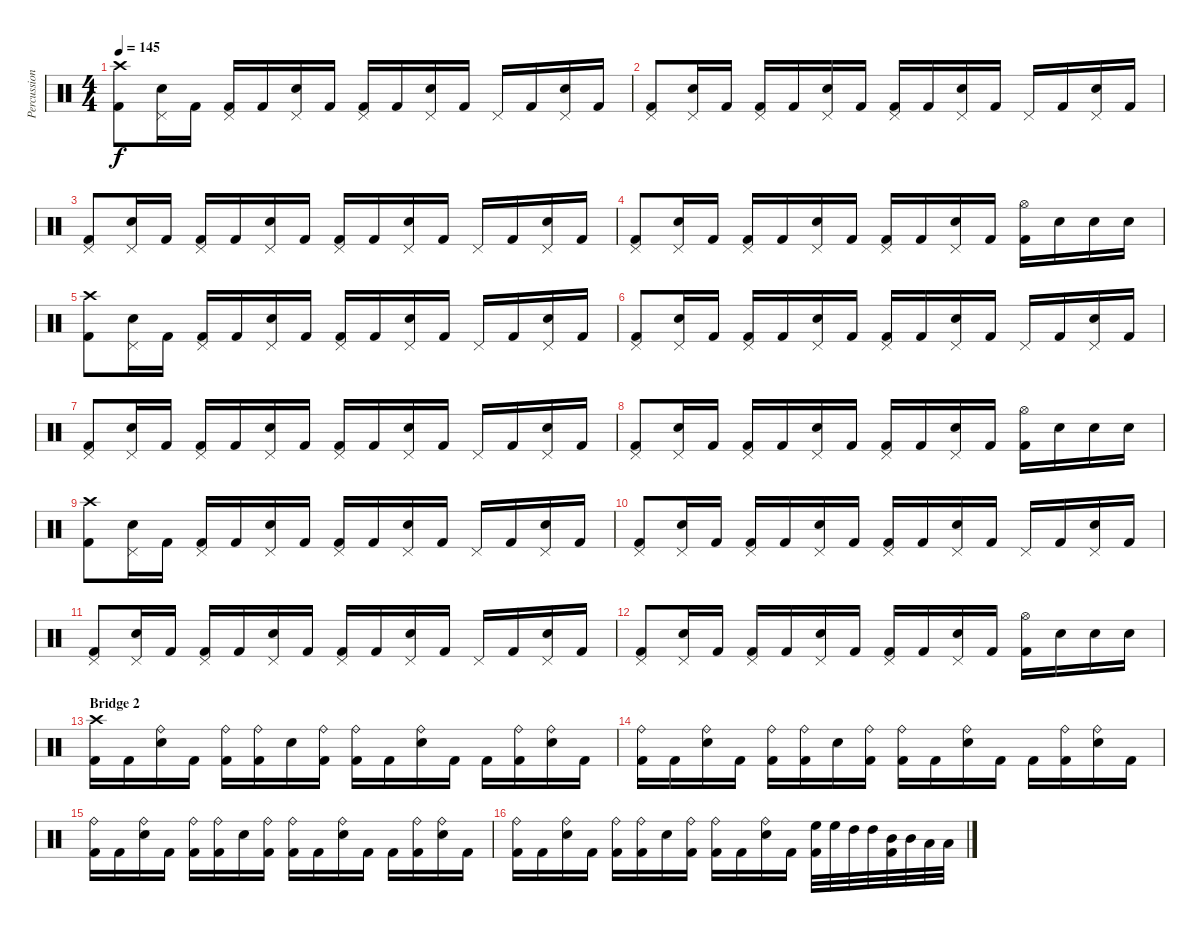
\track ("Percussion" "Percussion") {instrument percussion}
\staff {score}
\articulation defaults
\ts (4 4)
\tempo 145
\clef neutral
\ks c
("Kick (hit) 2" "Crash high (hit)").8{dy f} ("Electric Snare (hit)" "Pedal Hi-Hat (hit)").16 "Kick (hit) 2".16 ("Kick (hit) 2" "Pedal Hi-Hat (hit)").16 "Kick (hit) 2".16 ("Electric Snare (hit)" "Pedal Hi-Hat (hit)").16 "Kick (hit) 2".16 ("Kick (hit) 2" "Pedal Hi-Hat (hit)").16 "Kick (hit) 2".16 ("Electric Snare (hit)" "Pedal Hi-Hat (hit)").16 "Kick (hit) 2".16 "Pedal Hi-Hat (hit)".16 "Kick (hit) 2".16 ("Electric Snare (hit)" "Pedal Hi-Hat (hit)").16 "Kick (hit) 2".16 |
("Kick (hit) 2" "Pedal Hi-Hat (hit)").8 ("Electric Snare (hit)" "Pedal Hi-Hat (hit)").16 "Kick (hit) 2".16 ("Kick (hit) 2" "Pedal Hi-Hat (hit)").16 "Kick (hit) 2".16 ("Electric Snare (hit)" "Pedal Hi-Hat (hit)").16 "Kick (hit) 2".16 ("Kick (hit) 2" "Pedal Hi-Hat (hit)").16 "Kick (hit) 2".16 ("Electric Snare (hit)" "Pedal Hi-Hat (hit)").16 "Kick (hit) 2".16 "Pedal Hi-Hat (hit)".16 "Kick (hit) 2".16 ("Electric Snare (hit)" "Pedal Hi-Hat (hit)").16 "Kick (hit) 2".16 |
("Kick (hit) 2" "Pedal Hi-Hat (hit)").8 ("Electric Snare (hit)" "Pedal Hi-Hat (hit)").16 "Kick (hit) 2".16 ("Kick (hit) 2" "Pedal Hi-Hat (hit)").16 "Kick (hit) 2".16 ("Electric Snare (hit)" "Pedal Hi-Hat (hit)").16 "Kick (hit) 2".16 ("Kick (hit) 2" "Pedal Hi-Hat (hit)").16 "Kick (hit) 2".16 ("Electric Snare (hit)" "Pedal Hi-Hat (hit)").16 "Kick (hit) 2".16 "Pedal Hi-Hat (hit)".16 "Kick (hit) 2".16 ("Electric Snare (hit)" "Pedal Hi-Hat (hit)").16 "Kick (hit) 2".16 |
("Kick (hit) 2" "Pedal Hi-Hat (hit)").8 ("Electric Snare (hit)" "Pedal Hi-Hat (hit)").16 "Kick (hit) 2".16 ("Kick (hit) 2" "Pedal Hi-Hat (hit)").16 "Kick (hit) 2".16 ("Electric Snare (hit)" "Pedal Hi-Hat (hit)").16 "Kick (hit) 2".16 ("Kick (hit) 2" "Pedal Hi-Hat (hit)").16 "Kick (hit) 2".16 ("Electric Snare (hit)" "Pedal Hi-Hat (hit)").16 "Kick (hit) 2".16 ("Kick (hit) 2" "Hi-Hat (open)").16 "Electric Snare (hit)".16 "Electric Snare (hit)".16 "Electric Snare (hit)".16 |
("Kick (hit) 2" "Crash high (hit)").8 ("Electric Snare (hit)" "Pedal Hi-Hat (hit)").16 "Kick (hit) 2".16 ("Kick (hit) 2" "Pedal Hi-Hat (hit)").16 "Kick (hit) 2".16 ("Electric Snare (hit)" "Pedal Hi-Hat (hit)").16 "Kick (hit) 2".16 ("Kick (hit) 2" "Pedal Hi-Hat (hit)").16 "Kick (hit) 2".16 ("Electric Snare (hit)" "Pedal Hi-Hat (hit)").16 "Kick (hit) 2".16 "Pedal Hi-Hat (hit)".16 "Kick (hit) 2".16 ("Electric Snare (hit)" "Pedal Hi-Hat (hit)").16 "Kick (hit) 2".16 |
("Kick (hit) 2" "Pedal Hi-Hat (hit)").8 ("Electric Snare (hit)" "Pedal Hi-Hat (hit)").16 "Kick (hit) 2".16 ("Kick (hit) 2" "Pedal Hi-Hat (hit)").16 "Kick (hit) 2".16 ("Electric Snare (hit)" "Pedal Hi-Hat (hit)").16 "Kick (hit) 2".16 ("Kick (hit) 2" "Pedal Hi-Hat (hit)").16 "Kick (hit) 2".16 ("Electric Snare (hit)" "Pedal Hi-Hat (hit)").16 "Kick (hit) 2".16 "Pedal Hi-Hat (hit)".16 "Kick (hit) 2".16 ("Electric Snare (hit)" "Pedal Hi-Hat (hit)").16 "Kick (hit) 2".16 |
("Kick (hit) 2" "Pedal Hi-Hat (hit)").8 ("Electric Snare (hit)" "Pedal Hi-Hat (hit)").16 "Kick (hit) 2".16 ("Kick (hit) 2" "Pedal Hi-Hat (hit)").16 "Kick (hit) 2".16 ("Electric Snare (hit)" "Pedal Hi-Hat (hit)").16 "Kick (hit) 2".16 ("Kick (hit) 2" "Pedal Hi-Hat (hit)").16 "Kick (hit) 2".16 ("Electric Snare (hit)" "Pedal Hi-Hat (hit)").16 "Kick (hit) 2".16 "Pedal Hi-Hat (hit)".16 "Kick (hit) 2".16 ("Electric Snare (hit)" "Pedal Hi-Hat (hit)").16 "Kick (hit) 2".16 |
("Kick (hit) 2" "Pedal Hi-Hat (hit)").8 ("Electric Snare (hit)" "Pedal Hi-Hat (hit)").16 "Kick (hit) 2".16 ("Kick (hit) 2" "Pedal Hi-Hat (hit)").16 "Kick (hit) 2".16 ("Electric Snare (hit)" "Pedal Hi-Hat (hit)").16 "Kick (hit) 2".16 ("Kick (hit) 2" "Pedal Hi-Hat (hit)").16 "Kick (hit) 2".16 ("Electric Snare (hit)" "Pedal Hi-Hat (hit)").16 "Kick (hit) 2".16 ("Kick (hit) 2" "Hi-Hat (open)").16 "Electric Snare (hit)".16 "Electric Snare (hit)".16 "Electric Snare (hit)".16 |
("Kick (hit) 2" "Crash high (hit)").8 ("Electric Snare (hit)" "Pedal Hi-Hat (hit)").16 "Kick (hit) 2".16 ("Kick (hit) 2" "Pedal Hi-Hat (hit)").16 "Kick (hit) 2".16 ("Electric Snare (hit)" "Pedal Hi-Hat (hit)").16 "Kick (hit) 2".16 ("Kick (hit) 2" "Pedal Hi-Hat (hit)").16 "Kick (hit) 2".16 ("Electric Snare (hit)" "Pedal Hi-Hat (hit)").16 "Kick (hit) 2".16 "Pedal Hi-Hat (hit)".16 "Kick (hit) 2".16 ("Electric Snare (hit)" "Pedal Hi-Hat (hit)").16 "Kick (hit) 2".16 |
("Kick (hit) 2" "Pedal Hi-Hat (hit)").8 ("Electric Snare (hit)" "Pedal Hi-Hat (hit)").16 "Kick (hit) 2".16 ("Kick (hit) 2" "Pedal Hi-Hat (hit)").16 "Kick (hit) 2".16 ("Electric Snare (hit)" "Pedal Hi-Hat (hit)").16 "Kick (hit) 2".16 ("Kick (hit) 2" "Pedal Hi-Hat (hit)").16 "Kick (hit) 2".16 ("Electric Snare (hit)" "Pedal Hi-Hat (hit)").16 "Kick (hit) 2".16 "Pedal Hi-Hat (hit)".16 "Kick (hit) 2".16 ("Electric Snare (hit)" "Pedal Hi-Hat (hit)").16 "Kick (hit) 2".16 |
("Kick (hit) 2" "Pedal Hi-Hat (hit)").8 ("Electric Snare (hit)" "Pedal Hi-Hat (hit)").16 "Kick (hit) 2".16 ("Kick (hit) 2" "Pedal Hi-Hat (hit)").16 "Kick (hit) 2".16 ("Electric Snare (hit)" "Pedal Hi-Hat (hit)").16 "Kick (hit) 2".16 ("Kick (hit) 2" "Pedal Hi-Hat (hit)").16 "Kick (hit) 2".16 ("Electric Snare (hit)" "Pedal Hi-Hat (hit)").16 "Kick (hit) 2".16 "Pedal Hi-Hat (hit)".16 "Kick (hit) 2".16 ("Electric Snare (hit)" "Pedal Hi-Hat (hit)").16 "Kick (hit) 2".16 |
("Kick (hit) 2" "Pedal Hi-Hat (hit)").8 ("Electric Snare (hit)" "Pedal Hi-Hat (hit)").16 "Kick (hit) 2".16 ("Kick (hit) 2" "Pedal Hi-Hat (hit)").16 "Kick (hit) 2".16 ("Electric Snare (hit)" "Pedal Hi-Hat (hit)").16 "Kick (hit) 2".16 ("Kick (hit) 2" "Pedal Hi-Hat (hit)").16 "Kick (hit) 2".16 ("Electric Snare (hit)" "Pedal Hi-Hat (hit)").16 "Kick (hit) 2".16 ("Kick (hit) 2" "Hi-Hat (open)").16 "Electric Snare (hit)".16 "Electric Snare (hit)".16 "Electric Snare (hit)".16 |
\section ("" "Bridge 2")
("Kick (hit) 2" "Crash high (hit)").16 "Kick (hit) 2".16 ("Electric Snare (hit)" "Ride (bell)").16 "Kick (hit) 2".16 ("Kick (hit) 2" "Ride (bell)").16 ("Kick (hit) 2" "Ride (bell)").16 "Electric Snare (hit)".16 ("Kick (hit) 2" "Ride (bell)").16 ("Kick (hit) 2" "Ride (bell)").16 "Kick (hit) 2".16 ("Electric Snare (hit)" "Ride (bell)").16 "Kick (hit) 2".16 "Kick (hit) 2".16 ("Kick (hit) 2" "Ride (bell)").16 ("Electric Snare (hit)" "Ride (bell)").16 "Kick (hit) 2".16 |
("Kick (hit) 2" "Ride (bell)").16 "Kick (hit) 2".16 ("Electric Snare (hit)" "Ride (bell)").16 "Kick (hit) 2".16 ("Kick (hit) 2" "Ride (bell)").16 ("Kick (hit) 2" "Ride (bell)").16 "Electric Snare (hit)".16 ("Kick (hit) 2" "Ride (bell)").16 ("Kick (hit) 2" "Ride (bell)").16 "Kick (hit) 2".16 ("Electric Snare (hit)" "Ride (bell)").16 "Kick (hit) 2".16 "Kick (hit) 2".16 ("Kick (hit) 2" "Ride (bell)").16 ("Electric Snare (hit)" "Ride (bell)").16 "Kick (hit) 2".16 |
("Kick (hit) 2" "Ride (bell)").16 "Kick (hit) 2".16 ("Electric Snare (hit)" "Ride (bell)").16 "Kick (hit) 2".16 ("Kick (hit) 2" "Ride (bell)").16 ("Kick (hit) 2" "Ride (bell)").16 "Electric Snare (hit)".16 ("Kick (hit) 2" "Ride (bell)").16 ("Kick (hit) 2" "Ride (bell)").16 "Kick (hit) 2".16 ("Electric Snare (hit)" "Ride (bell)").16 "Kick (hit) 2".16 "Kick (hit) 2".16 ("Kick (hit) 2" "Ride (bell)").16 ("Electric Snare (hit)" "Ride (bell)").16 "Kick (hit) 2".16 |
("Kick (hit) 2" "Ride (bell)").16 "Kick (hit) 2".16 ("Electric Snare (hit)" "Ride (bell)").16 "Kick (hit) 2".16 ("Kick (hit) 2" "Ride (bell)").16 ("Kick (hit) 2" "Ride (bell)").16 "Electric Snare (hit)".16 ("Kick (hit) 2" "Ride (bell)").16 ("Kick (hit) 2" "Ride (bell)").16 "Kick (hit) 2".16 ("Electric Snare (hit)" "Ride (bell)").16 "Kick (hit) 2".16 ("High Floor Tom (hit)" "Kick (hit) 2").32 "High Floor Tom (hit)".32 "High Tom (hit)".32 "High Tom (hit)".32 ("Mid Tom (hit)" "Kick (hit) 2").32 "Mid Tom (hit)".32 "Low Tom (hit)".32 "Low Tom (hit)".32
